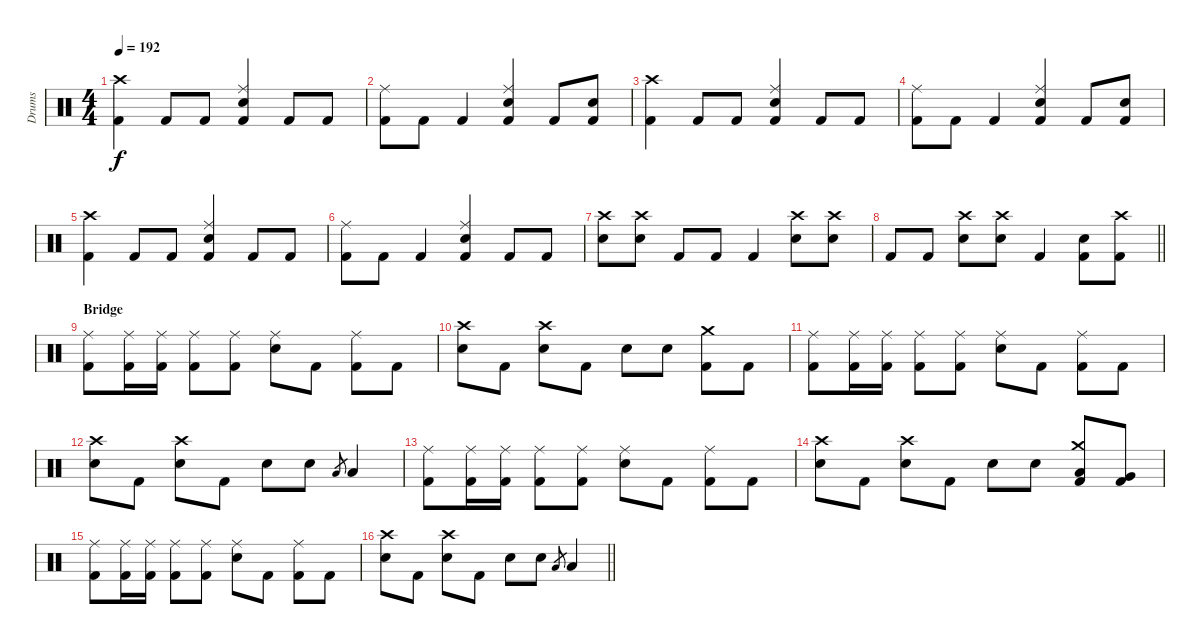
\track ("Drums" "Drums") {instrument percussion}
\staff {score}
\articulation defaults
\ts (4 4)
\tempo 192
\clef neutral
\ks c
("Crash high (hit)" "Kick (hit) 2").4{dy f} "Kick (hit) 2".8 "Kick (hit) 2".8 ("Ride (middle)" "Snare (hit) 2" "Kick (hit) 2").4 "Kick (hit) 2".8 "Kick (hit) 2".8 |
("Ride (middle)" "Kick (hit) 2").8 "Kick (hit) 2".8 "Kick (hit) 2".4 ("Ride (middle)" "Snare (hit) 2" "Kick (hit) 2").4 "Kick (hit) 2".8 ("Snare (hit) 2" "Kick (hit) 2").8 |
("Crash high (hit)" "Kick (hit) 2").4 "Kick (hit) 2".8 "Kick (hit) 2".8 ("Ride (middle)" "Snare (hit) 2" "Kick (hit) 2").4 "Kick (hit) 2".8 "Kick (hit) 2".8 |
("Ride (middle)" "Kick (hit) 2").8 "Kick (hit) 2".8 "Kick (hit) 2".4 ("Ride (middle)" "Snare (hit) 2" "Kick (hit) 2").4 "Kick (hit) 2".8 ("Snare (hit) 2" "Kick (hit) 2").8 |
("Crash high (hit)" "Kick (hit) 2").4 "Kick (hit) 2".8 "Kick (hit) 2".8 ("Ride (middle)" "Snare (hit) 2" "Kick (hit) 2").4 "Kick (hit) 2".8 "Kick (hit) 2".8 |
("Ride (middle)" "Kick (hit) 2").8 "Kick (hit) 2".8 "Kick (hit) 2".4 ("Ride (middle)" "Snare (hit) 2" "Kick (hit) 2").4 "Kick (hit) 2".8 "Kick (hit) 2".8 |
("Crash high (hit)" "Snare (hit) 2").8 ("Crash high (hit)" "Snare (hit) 2").8 "Kick (hit) 2".8 "Kick (hit) 2".8 "Kick (hit) 2".4 ("Crash high (hit)" "Snare (hit) 2").8 ("Crash high (hit)" "Snare (hit) 2").8 |
\barLineRight lightlight "Kick (hit) 2".8 "Kick (hit) 2".8
("Crash high (hit)" "Snare (hit) 2").8 ("Crash high (hit)" "Snare (hit) 2").8 "Kick (hit) 2".4 ("Snare (hit) 2" "Kick (hit) 2").8 ("Crash high (hit)" "Kick (hit) 2").8 |
\section ("" "Bridge")
("Ride (middle)" "Kick (hit) 2").8 ("Ride (middle)" "Kick (hit) 2").16 ("Ride (middle)" "Kick (hit) 2").16 ("Ride (middle)" "Kick (hit) 2").8 ("Ride (middle)" "Kick (hit) 2").8 ("Ride (middle)" "Snare (hit) 2").8 "Kick (hit) 2".8 ("Ride (middle)" "Kick (hit) 2").8 "Kick (hit) 2".8 |
("Crash high (hit)" "Snare (hit) 2").8 "Kick (hit) 2".8 ("Crash high (hit)" "Snare (hit) 2").8 "Kick (hit) 2".8 "Snare (hit) 2".8 "Snare (hit) 2".8 ("Crash medium (hit)" "Kick (hit) 2").8 "Kick (hit) 2".8 |
("Ride (middle)" "Kick (hit) 2").8 ("Ride (middle)" "Kick (hit) 2").16 ("Ride (middle)" "Kick (hit) 2").16 ("Ride (middle)" "Kick (hit) 2").8 ("Ride (middle)" "Kick (hit) 2").8 ("Ride (middle)" "Snare (hit) 2").8 "Kick (hit) 2".8 ("Ride (middle)" "Kick (hit) 2").8 "Kick (hit) 2".8 |
("Crash high (hit)" "Snare (hit) 2").8 "Kick (hit) 2".8 ("Crash high (hit)" "Snare (hit) 2").8 "Kick (hit) 2".8 "Snare (hit) 2".8 "Snare (hit) 2".8 "Low Tom (hit)".8{gr} "Low Tom (hit)".4 |
("Ride (middle)" "Kick (hit) 2").8 ("Ride (middle)" "Kick (hit) 2").16 ("Ride (middle)" "Kick (hit) 2").16 ("Ride (middle)" "Kick (hit) 2").8 ("Ride (middle)" "Kick (hit) 2").8 ("Ride (middle)" "Snare (hit) 2").8 "Kick (hit) 2".8 ("Ride (middle)" "Kick (hit) 2").8 "Kick (hit) 2".8 |
("Crash high (hit)" "Snare (hit) 2").8 "Kick (hit) 2".8 ("Crash high (hit)" "Snare (hit) 2").8 "Kick (hit) 2".8 "Snare (hit) 2".8 "Snare (hit) 2".8 ("Crash medium (hit)" "Low Tom (hit)" "Kick (hit) 2").8 ("Very Low Tom (hit)" "Kick (hit) 2").8 |
("Ride (middle)" "Kick (hit) 2").8 ("Ride (middle)" "Kick (hit) 2").16 ("Ride (middle)" "Kick (hit) 2").16 ("Ride (middle)" "Kick (hit) 2").8 ("Ride (middle)" "Kick (hit) 2").8 ("Ride (middle)" "Snare (hit) 2").8 "Kick (hit) 2".8 ("Ride (middle)" "Kick (hit) 2").8 "Kick (hit) 2".8 |
\barLineRight lightlight
("Crash high (hit)" "Snare (hit) 2").8 "Kick (hit) 2".8 ("Crash high (hit)" "Snare (hit) 2").8 "Kick (hit) 2".8 "Snare (hit) 2".8 "Snare (hit) 2".8 "Low Tom (hit)".8{gr} "Low Tom (hit)".4
